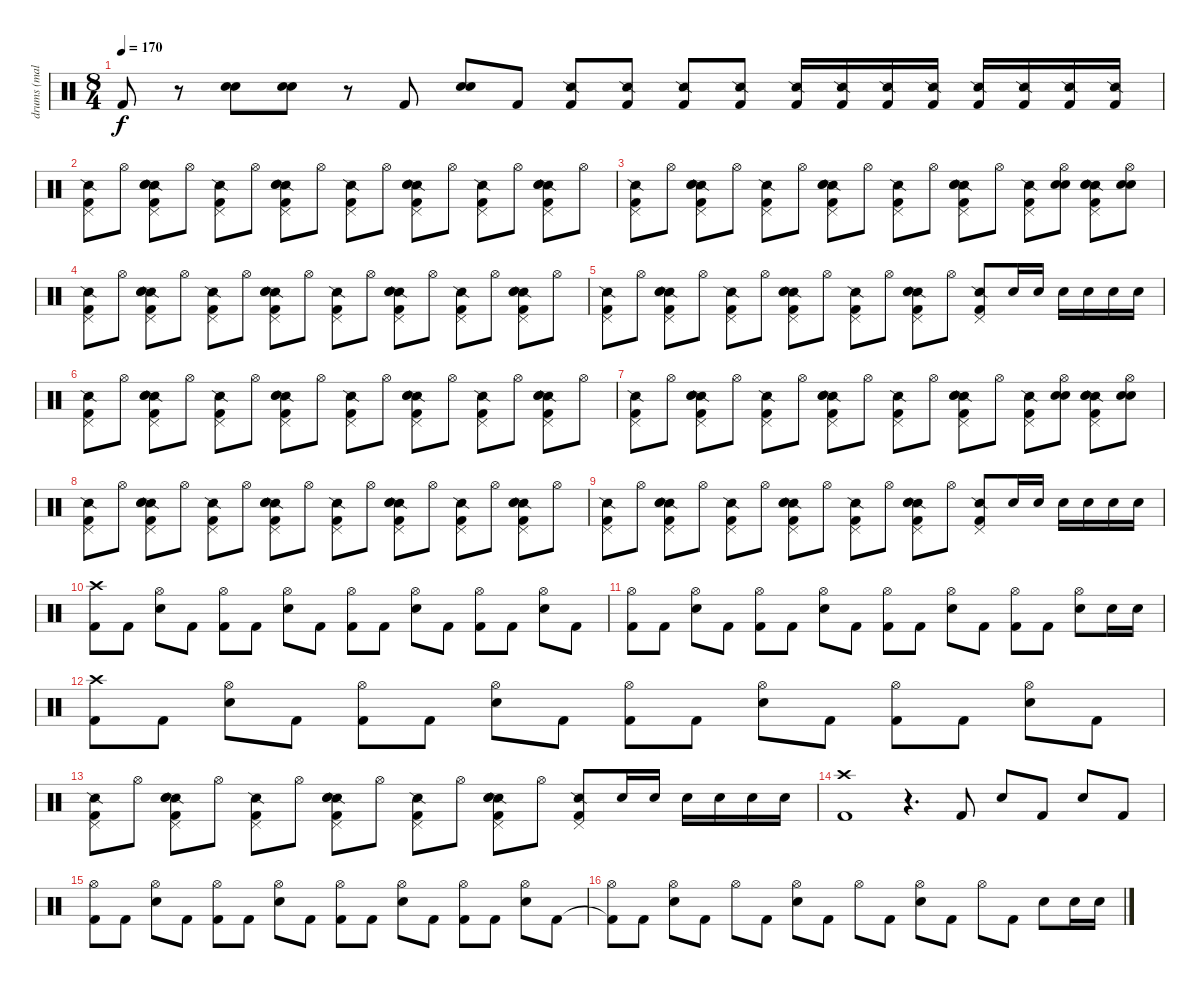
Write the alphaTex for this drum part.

\track ("drums (male)" "drums (mal") {mute instrument percussion}
\staff {score}
\articulation defaults
\ts (8 4)
\tempo 170
\clef neutral
\ks c "Kick (hit) 2".8{dy f}
r.8 ("Electric Snare (hit)" "Hand Clap (hit)").8 ("Electric Snare (hit)" "Hand Clap (hit)").8 r.8 "Kick (hit) 2".8 ("Electric Snare (hit)" "Hand Clap (hit)").8 "Kick (hit) 2".8 ("Kick (hit) 2" "Snare (side stick) 2").8 ("Kick (hit) 2" "Snare (side stick) 2").8 ("Kick (hit) 2" "Snare (side stick) 2").8 ("Kick (hit) 2" "Snare (side stick) 2").8 ("Kick (hit) 2" "Snare (side stick) 2").16 ("Kick (hit) 2" "Snare (side stick) 2").16 ("Kick (hit) 2" "Snare (side stick) 2").16 ("Kick (hit) 2" "Snare (side stick) 2").16 ("Kick (hit) 2" "Snare (side stick) 2").16 ("Kick (hit) 2" "Snare (side stick) 2").16 ("Kick (hit) 2" "Snare (side stick) 2").16 ("Kick (hit) 2" "Snare (side stick) 2").16 |
("Kick (hit) 2" "Snare (side stick) 2" "Pedal Hi-Hat (hit)").8 "Hi-Hat (open)".8 ("Kick (hit) 2" "Snare (side stick) 2" "Electric Snare (hit)" "Hand Clap (hit)" "Pedal Hi-Hat (hit)").8 "Hi-Hat (open)".8 ("Kick (hit) 2" "Snare (side stick) 2" "Pedal Hi-Hat (hit)").8 "Hi-Hat (open)".8 ("Kick (hit) 2" "Snare (side stick) 2" "Electric Snare (hit)" "Hand Clap (hit)" "Pedal Hi-Hat (hit)").8 "Hi-Hat (open)".8 ("Kick (hit) 2" "Snare (side stick) 2" "Pedal Hi-Hat (hit)").8 "Hi-Hat (open)".8 ("Kick (hit) 2" "Snare (side stick) 2" "Electric Snare (hit)" "Hand Clap (hit)" "Pedal Hi-Hat (hit)").8 "Hi-Hat (open)".8 ("Kick (hit) 2" "Snare (side stick) 2" "Pedal Hi-Hat (hit)").8 "Hi-Hat (open)".8 ("Kick (hit) 2" "Snare (side stick) 2" "Electric Snare (hit)" "Hand Clap (hit)" "Pedal Hi-Hat (hit)").8 "Hi-Hat (open)".8 |
("Kick (hit) 2" "Snare (side stick) 2" "Pedal Hi-Hat (hit)").8 "Hi-Hat (open)".8 ("Kick (hit) 2" "Snare (side stick) 2" "Electric Snare (hit)" "Hand Clap (hit)" "Pedal Hi-Hat (hit)").8 "Hi-Hat (open)".8 ("Kick (hit) 2" "Snare (side stick) 2" "Pedal Hi-Hat (hit)").8 "Hi-Hat (open)".8 ("Kick (hit) 2" "Snare (side stick) 2" "Electric Snare (hit)" "Hand Clap (hit)" "Pedal Hi-Hat (hit)").8 "Hi-Hat (open)".8 ("Kick (hit) 2" "Snare (side stick) 2" "Pedal Hi-Hat (hit)").8 "Hi-Hat (open)".8 ("Kick (hit) 2" "Snare (side stick) 2" "Electric Snare (hit)" "Hand Clap (hit)" "Pedal Hi-Hat (hit)").8 "Hi-Hat (open)".8 ("Kick (hit) 2" "Snare (side stick) 2" "Pedal Hi-Hat (hit)").8 ("Electric Snare (hit)" "Hand Clap (hit)" "Hi-Hat (open)").8 ("Kick (hit) 2" "Snare (side stick) 2" "Electric Snare (hit)" "Hand Clap (hit)" "Pedal Hi-Hat (hit)").8 ("Electric Snare (hit)" "Hand Clap (hit)" "Hi-Hat (open)").8 |
("Kick (hit) 2" "Snare (side stick) 2" "Pedal Hi-Hat (hit)").8 "Hi-Hat (open)".8 ("Kick (hit) 2" "Snare (side stick) 2" "Electric Snare (hit)" "Hand Clap (hit)" "Pedal Hi-Hat (hit)").8 "Hi-Hat (open)".8 ("Kick (hit) 2" "Snare (side stick) 2" "Pedal Hi-Hat (hit)").8 "Hi-Hat (open)".8 ("Kick (hit) 2" "Snare (side stick) 2" "Electric Snare (hit)" "Hand Clap (hit)" "Pedal Hi-Hat (hit)").8 "Hi-Hat (open)".8 ("Kick (hit) 2" "Snare (side stick) 2" "Pedal Hi-Hat (hit)").8 "Hi-Hat (open)".8 ("Kick (hit) 2" "Snare (side stick) 2" "Electric Snare (hit)" "Hand Clap (hit)" "Pedal Hi-Hat (hit)").8 "Hi-Hat (open)".8 ("Kick (hit) 2" "Snare (side stick) 2" "Pedal Hi-Hat (hit)").8 "Hi-Hat (open)".8 ("Kick (hit) 2" "Snare (side stick) 2" "Electric Snare (hit)" "Hand Clap (hit)" "Pedal Hi-Hat (hit)").8 "Hi-Hat (open)".8 |
("Kick (hit) 2" "Snare (side stick) 2" "Pedal Hi-Hat (hit)").8 "Hi-Hat (open)".8 ("Kick (hit) 2" "Snare (side stick) 2" "Electric Snare (hit)" "Hand Clap (hit)" "Pedal Hi-Hat (hit)").8 "Hi-Hat (open)".8 ("Kick (hit) 2" "Snare (side stick) 2" "Pedal Hi-Hat (hit)").8 "Hi-Hat (open)".8 ("Kick (hit) 2" "Snare (side stick) 2" "Electric Snare (hit)" "Hand Clap (hit)" "Pedal Hi-Hat (hit)").8 "Hi-Hat (open)".8 ("Kick (hit) 2" "Snare (side stick) 2" "Pedal Hi-Hat (hit)").8 "Hi-Hat (open)".8 ("Kick (hit) 2" "Snare (side stick) 2" "Electric Snare (hit)" "Hand Clap (hit)" "Pedal Hi-Hat (hit)").8 "Hi-Hat (open)".8 ("Kick (hit) 2" "Snare (side stick) 2" "Pedal Hi-Hat (hit)").8 "Electric Snare (hit)".16 "Electric Snare (hit)".16 "Electric Snare (hit)".16 "Electric Snare (hit)".16 "Electric Snare (hit)".16 "Electric Snare (hit)".16 |
("Kick (hit) 2" "Snare (side stick) 2" "Pedal Hi-Hat (hit)").8 "Hi-Hat (open)".8 ("Kick (hit) 2" "Snare (side stick) 2" "Electric Snare (hit)" "Hand Clap (hit)" "Pedal Hi-Hat (hit)").8 "Hi-Hat (open)".8 ("Kick (hit) 2" "Snare (side stick) 2" "Pedal Hi-Hat (hit)").8 "Hi-Hat (open)".8 ("Kick (hit) 2" "Snare (side stick) 2" "Electric Snare (hit)" "Hand Clap (hit)" "Pedal Hi-Hat (hit)").8 "Hi-Hat (open)".8 ("Kick (hit) 2" "Snare (side stick) 2" "Pedal Hi-Hat (hit)").8 "Hi-Hat (open)".8 ("Kick (hit) 2" "Snare (side stick) 2" "Electric Snare (hit)" "Hand Clap (hit)" "Pedal Hi-Hat (hit)").8 "Hi-Hat (open)".8 ("Kick (hit) 2" "Snare (side stick) 2" "Pedal Hi-Hat (hit)").8 "Hi-Hat (open)".8 ("Kick (hit) 2" "Snare (side stick) 2" "Electric Snare (hit)" "Hand Clap (hit)" "Pedal Hi-Hat (hit)").8 "Hi-Hat (open)".8 |
("Kick (hit) 2" "Snare (side stick) 2" "Pedal Hi-Hat (hit)").8 "Hi-Hat (open)".8 ("Kick (hit) 2" "Snare (side stick) 2" "Electric Snare (hit)" "Hand Clap (hit)" "Pedal Hi-Hat (hit)").8 "Hi-Hat (open)".8 ("Kick (hit) 2" "Snare (side stick) 2" "Pedal Hi-Hat (hit)").8 "Hi-Hat (open)".8 ("Kick (hit) 2" "Snare (side stick) 2" "Electric Snare (hit)" "Hand Clap (hit)" "Pedal Hi-Hat (hit)").8 "Hi-Hat (open)".8 ("Kick (hit) 2" "Snare (side stick) 2" "Pedal Hi-Hat (hit)").8 "Hi-Hat (open)".8 ("Kick (hit) 2" "Snare (side stick) 2" "Electric Snare (hit)" "Hand Clap (hit)" "Pedal Hi-Hat (hit)").8 "Hi-Hat (open)".8 ("Kick (hit) 2" "Snare (side stick) 2" "Pedal Hi-Hat (hit)").8 ("Electric Snare (hit)" "Hand Clap (hit)" "Hi-Hat (open)").8 ("Kick (hit) 2" "Snare (side stick) 2" "Electric Snare (hit)" "Hand Clap (hit)" "Pedal Hi-Hat (hit)").8 ("Electric Snare (hit)" "Hand Clap (hit)" "Hi-Hat (open)").8 |
("Kick (hit) 2" "Snare (side stick) 2" "Pedal Hi-Hat (hit)").8 "Hi-Hat (open)".8 ("Kick (hit) 2" "Snare (side stick) 2" "Electric Snare (hit)" "Hand Clap (hit)" "Pedal Hi-Hat (hit)").8 "Hi-Hat (open)".8 ("Kick (hit) 2" "Snare (side stick) 2" "Pedal Hi-Hat (hit)").8 "Hi-Hat (open)".8 ("Kick (hit) 2" "Snare (side stick) 2" "Electric Snare (hit)" "Hand Clap (hit)" "Pedal Hi-Hat (hit)").8 "Hi-Hat (open)".8 ("Kick (hit) 2" "Snare (side stick) 2" "Pedal Hi-Hat (hit)").8 "Hi-Hat (open)".8 ("Kick (hit) 2" "Snare (side stick) 2" "Electric Snare (hit)" "Hand Clap (hit)" "Pedal Hi-Hat (hit)").8 "Hi-Hat (open)".8 ("Kick (hit) 2" "Snare (side stick) 2" "Pedal Hi-Hat (hit)").8 "Hi-Hat (open)".8 ("Kick (hit) 2" "Snare (side stick) 2" "Electric Snare (hit)" "Hand Clap (hit)" "Pedal Hi-Hat (hit)").8 "Hi-Hat (open)".8 |
("Kick (hit) 2" "Snare (side stick) 2" "Pedal Hi-Hat (hit)").8 "Hi-Hat (open)".8 ("Kick (hit) 2" "Snare (side stick) 2" "Electric Snare (hit)" "Hand Clap (hit)" "Pedal Hi-Hat (hit)").8 "Hi-Hat (open)".8 ("Kick (hit) 2" "Snare (side stick) 2" "Pedal Hi-Hat (hit)").8 "Hi-Hat (open)".8 ("Kick (hit) 2" "Snare (side stick) 2" "Electric Snare (hit)" "Hand Clap (hit)" "Pedal Hi-Hat (hit)").8 "Hi-Hat (open)".8 ("Kick (hit) 2" "Snare (side stick) 2" "Pedal Hi-Hat (hit)").8 "Hi-Hat (open)".8 ("Kick (hit) 2" "Snare (side stick) 2" "Electric Snare (hit)" "Hand Clap (hit)" "Pedal Hi-Hat (hit)").8 "Hi-Hat (open)".8 ("Kick (hit) 2" "Snare (side stick) 2" "Pedal Hi-Hat (hit)").8 "Electric Snare (hit)".16 "Electric Snare (hit)".16 "Electric Snare (hit)".16 "Electric Snare (hit)".16 "Electric Snare (hit)".16 "Electric Snare (hit)".16 |
("Kick (hit) 2" "Crash high (hit)").8 "Kick (hit) 2".8 ("Electric Snare (hit)" "Hi-Hat (open)").8 "Kick (hit) 2".8 ("Kick (hit) 2" "Hi-Hat (open)").8 "Kick (hit) 2".8 ("Electric Snare (hit)" "Hi-Hat (open)").8 "Kick (hit) 2".8 ("Kick (hit) 2" "Hi-Hat (open)").8 "Kick (hit) 2".8 ("Electric Snare (hit)" "Hi-Hat (open)").8 "Kick (hit) 2".8 ("Kick (hit) 2" "Hi-Hat (open)").8 "Kick (hit) 2".8 ("Electric Snare (hit)" "Hi-Hat (open)").8 "Kick (hit) 2".8 |
("Kick (hit) 2" "Hi-Hat (open)").8 "Kick (hit) 2".8 ("Electric Snare (hit)" "Hi-Hat (open)").8 "Kick (hit) 2".8 ("Kick (hit) 2" "Hi-Hat (open)").8 "Kick (hit) 2".8 ("Electric Snare (hit)" "Hi-Hat (open)").8 "Kick (hit) 2".8 ("Kick (hit) 2" "Hi-Hat (open)").8 "Kick (hit) 2".8 ("Electric Snare (hit)" "Hi-Hat (open)").8 "Kick (hit) 2".8 ("Kick (hit) 2" "Hi-Hat (open)").8 "Kick (hit) 2".8 ("Electric Snare (hit)" "Hi-Hat (open)").8 "Electric Snare (hit)".16 "Electric Snare (hit)".16 |
("Kick (hit) 2" "Crash high (hit)").8 "Kick (hit) 2".8 ("Electric Snare (hit)" "Hi-Hat (open)").8 "Kick (hit) 2".8 ("Kick (hit) 2" "Hi-Hat (open)").8 "Kick (hit) 2".8 ("Electric Snare (hit)" "Hi-Hat (open)").8 "Kick (hit) 2".8 ("Kick (hit) 2" "Hi-Hat (open)").8 "Kick (hit) 2".8 ("Electric Snare (hit)" "Hi-Hat (open)").8 "Kick (hit) 2".8 ("Kick (hit) 2" "Hi-Hat (open)").8 "Kick (hit) 2".8 ("Electric Snare (hit)" "Hi-Hat (open)").8 "Kick (hit) 2".8 |
("Kick (hit) 2" "Snare (side stick) 2" "Pedal Hi-Hat (hit)").8 "Hi-Hat (open)".8 ("Kick (hit) 2" "Snare (side stick) 2" "Electric Snare (hit)" "Hand Clap (hit)" "Pedal Hi-Hat (hit)").8 "Hi-Hat (open)".8 ("Kick (hit) 2" "Snare (side stick) 2" "Pedal Hi-Hat (hit)").8 "Hi-Hat (open)".8 ("Kick (hit) 2" "Snare (side stick) 2" "Electric Snare (hit)" "Hand Clap (hit)" "Pedal Hi-Hat (hit)").8 "Hi-Hat (open)".8 ("Kick (hit) 2" "Snare (side stick) 2" "Pedal Hi-Hat (hit)").8 "Hi-Hat (open)".8 ("Kick (hit) 2" "Snare (side stick) 2" "Electric Snare (hit)" "Hand Clap (hit)" "Pedal Hi-Hat (hit)").8 "Hi-Hat (open)".8 ("Kick (hit) 2" "Snare (side stick) 2" "Pedal Hi-Hat (hit)").8 "Electric Snare (hit)".16 "Electric Snare (hit)".16 "Electric Snare (hit)".16 "Electric Snare (hit)".16 "Electric Snare (hit)".16 "Electric Snare (hit)".16 |
("Kick (hit) 2" "Crash high (hit)").1 r.4{d} "Kick (hit) 2".8 "Electric Snare (hit)".8 "Kick (hit) 2".8 "Electric Snare (hit)".8 "Kick (hit) 2".8 |
("Kick (hit) 2" "Hi-Hat (open)").8 "Kick (hit) 2".8 ("Electric Snare (hit)" "Hi-Hat (open)").8 "Kick (hit) 2".8 ("Kick (hit) 2" "Hi-Hat (open)").8 "Kick (hit) 2".8 ("Electric Snare (hit)" "Hi-Hat (open)").8 "Kick (hit) 2".8 ("Kick (hit) 2" "Hi-Hat (open)").8 "Kick (hit) 2".8 ("Electric Snare (hit)" "Hi-Hat (open)").8 "Kick (hit) 2".8 ("Kick (hit) 2" "Hi-Hat (open)").8 "Kick (hit) 2".8 ("Electric Snare (hit)" "Hi-Hat (open)").8 "Kick (hit) 2".8 |
("Kick (hit) 2"{t} "Hi-Hat (open)").8 "Kick (hit) 2".8 ("Electric Snare (hit)" "Hi-Hat (open)").8 "Kick (hit) 2".8 "Hi-Hat (open)".8 "Kick (hit) 2".8 ("Electric Snare (hit)" "Hi-Hat (open)").8 "Kick (hit) 2".8 "Hi-Hat (open)".8 "Kick (hit) 2".8 ("Electric Snare (hit)" "Hi-Hat (open)").8 "Kick (hit) 2".8 "Hi-Hat (open)".8 "Kick (hit) 2".8 "Electric Snare (hit)".8 "Electric Snare (hit)".16 "Electric Snare (hit)".16
